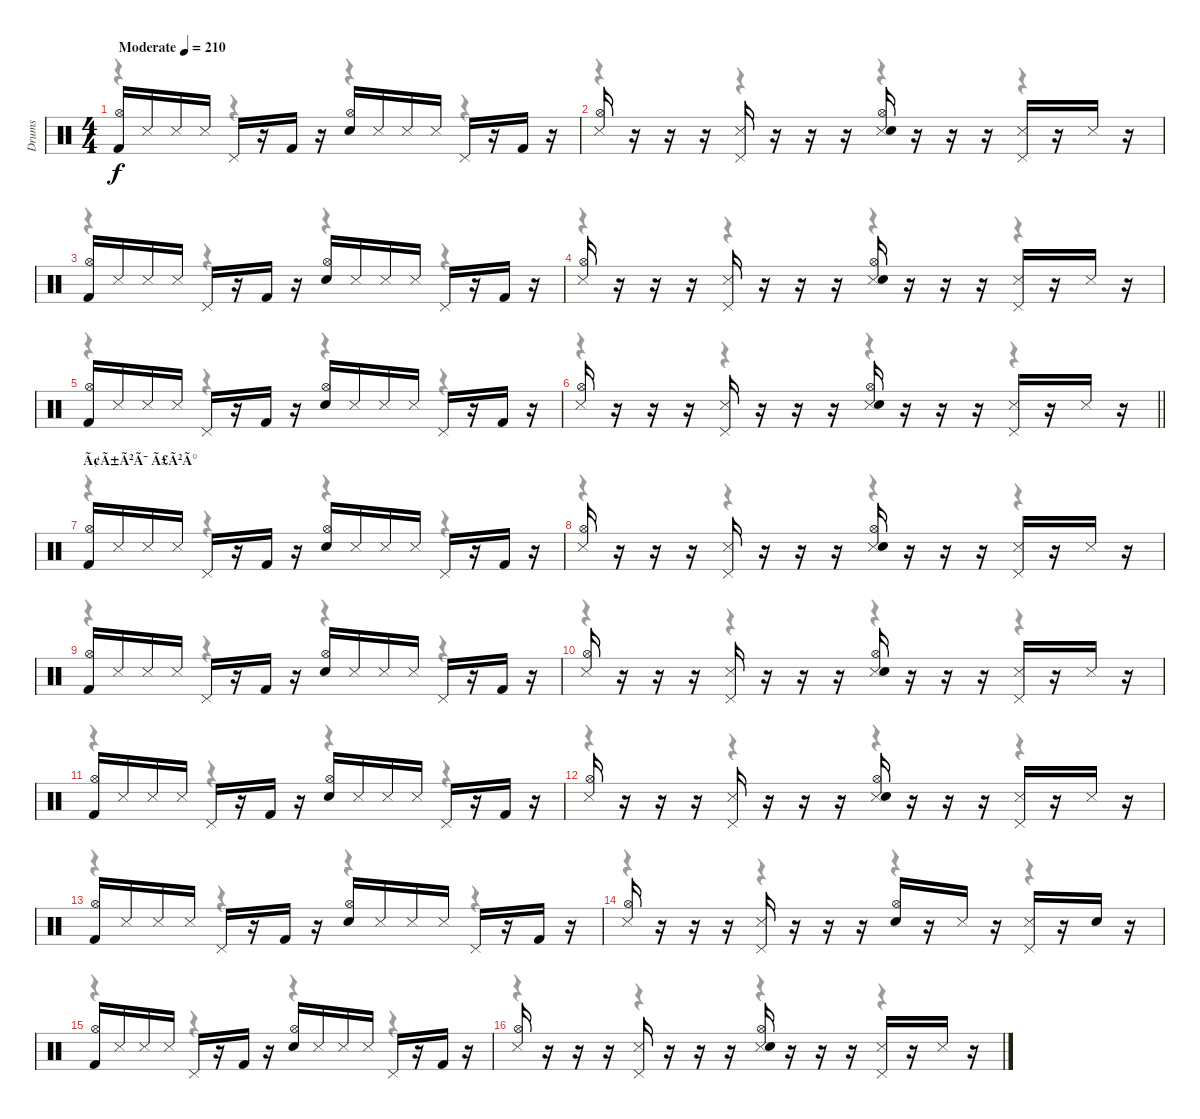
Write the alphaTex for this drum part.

\track ("Drums" "Drums") {instrument percussion}
\staff {score}
\articulation defaults
\voice
\ts (4 4)
\tempo (210 "Moderate")
\clef neutral
\ks c
("Kick (hit) 2" "Hi-Hat (open)").16{dy f} "Snare (side stick) 3".16 "Snare (side stick) 3".16 "Snare (side stick) 3".16 "Pedal Hi-Hat (hit)".16 r.16 "Kick (hit) 2".16 r.16 ("Snare (hit) 2" "Hi-Hat (open)").16 "Snare (side stick) 3".16 "Snare (side stick) 3".16 "Snare (side stick) 3".16 "Pedal Hi-Hat (hit)".16 r.16 "Kick (hit) 2".16 r.16 |
("Snare (side stick) 3" "Hi-Hat (open)").16 r.16 r.16 r.16 ("Snare (side stick) 3" "Pedal Hi-Hat (hit)").16 r.16 r.16 r.16 ("Snare (side stick) 3" "Snare (hit) 2" "Hi-Hat (open)").16 r.16 r.16 r.16 ("Snare (side stick) 3" "Pedal Hi-Hat (hit)").16 r.16 "Snare (side stick) 3".16 r.16 |
("Kick (hit) 2" "Hi-Hat (open)").16 "Snare (side stick) 3".16 "Snare (side stick) 3".16 "Snare (side stick) 3".16 "Pedal Hi-Hat (hit)".16 r.16 "Kick (hit) 2".16 r.16 ("Snare (hit) 2" "Hi-Hat (open)").16 "Snare (side stick) 3".16 "Snare (side stick) 3".16 "Snare (side stick) 3".16 "Pedal Hi-Hat (hit)".16 r.16 "Kick (hit) 2".16 r.16 |
("Snare (side stick) 3" "Hi-Hat (open)").16 r.16 r.16 r.16 ("Snare (side stick) 3" "Pedal Hi-Hat (hit)").16 r.16 r.16 r.16 ("Snare (side stick) 3" "Snare (hit) 2" "Hi-Hat (open)").16 r.16 r.16 r.16 ("Snare (side stick) 3" "Pedal Hi-Hat (hit)").16 r.16 "Snare (side stick) 3".16 r.16 |
("Kick (hit) 2" "Hi-Hat (open)").16 "Snare (side stick) 3".16 "Snare (side stick) 3".16 "Snare (side stick) 3".16 "Pedal Hi-Hat (hit)".16 r.16 "Kick (hit) 2".16 r.16 ("Snare (hit) 2" "Hi-Hat (open)").16 "Snare (side stick) 3".16 "Snare (side stick) 3".16 "Snare (side stick) 3".16 "Pedal Hi-Hat (hit)".16 r.16 "Kick (hit) 2".16 r.16 |
\barLineRight lightlight
("Snare (side stick) 3" "Hi-Hat (open)").16 r.16 r.16 r.16 ("Snare (side stick) 3" "Pedal Hi-Hat (hit)").16 r.16 r.16 r.16 ("Snare (side stick) 3" "Snare (hit) 2" "Hi-Hat (open)").16 r.16 r.16 r.16 ("Snare (side stick) 3" "Pedal Hi-Hat (hit)").16 r.16 "Snare (side stick) 3".16 r.16 |
\section ("" "Ã¢Ã±Ã²Ã¯ Ã£Ã²Ã°")
("Kick (hit) 2" "Hi-Hat (open)").16 "Snare (side stick) 3".16 "Snare (side stick) 3".16 "Snare (side stick) 3".16 "Pedal Hi-Hat (hit)".16 r.16 "Kick (hit) 2".16 r.16 ("Snare (hit) 2" "Hi-Hat (open)").16 "Snare (side stick) 3".16 "Snare (side stick) 3".16 "Snare (side stick) 3".16 "Pedal Hi-Hat (hit)".16 r.16 "Kick (hit) 2".16 r.16 |
("Snare (side stick) 3" "Hi-Hat (open)").16 r.16 r.16 r.16 ("Snare (side stick) 3" "Pedal Hi-Hat (hit)").16 r.16 r.16 r.16 ("Snare (side stick) 3" "Snare (hit) 2" "Hi-Hat (open)").16 r.16 r.16 r.16 ("Snare (side stick) 3" "Pedal Hi-Hat (hit)").16 r.16 "Snare (side stick) 3".16 r.16 |
("Kick (hit) 2" "Hi-Hat (open)").16 "Snare (side stick) 3".16 "Snare (side stick) 3".16 "Snare (side stick) 3".16 "Pedal Hi-Hat (hit)".16 r.16 "Kick (hit) 2".16 r.16 ("Snare (hit) 2" "Hi-Hat (open)").16 "Snare (side stick) 3".16 "Snare (side stick) 3".16 "Snare (side stick) 3".16 "Pedal Hi-Hat (hit)".16 r.16 "Kick (hit) 2".16 r.16 |
("Snare (side stick) 3" "Hi-Hat (open)").16 r.16 r.16 r.16 ("Snare (side stick) 3" "Pedal Hi-Hat (hit)").16 r.16 r.16 r.16 ("Snare (side stick) 3" "Snare (hit) 2" "Hi-Hat (open)").16 r.16 r.16 r.16 ("Snare (side stick) 3" "Pedal Hi-Hat (hit)").16 r.16 "Snare (side stick) 3".16 r.16 |
("Kick (hit) 2" "Hi-Hat (open)").16 "Snare (side stick) 3".16 "Snare (side stick) 3".16 "Snare (side stick) 3".16 "Pedal Hi-Hat (hit)".16 r.16 "Kick (hit) 2".16 r.16 ("Snare (hit) 2" "Hi-Hat (open)").16 "Snare (side stick) 3".16 "Snare (side stick) 3".16 "Snare (side stick) 3".16 "Pedal Hi-Hat (hit)".16 r.16 "Kick (hit) 2".16 r.16 |
("Snare (side stick) 3" "Hi-Hat (open)").16 r.16 r.16 r.16 ("Snare (side stick) 3" "Pedal Hi-Hat (hit)").16 r.16 r.16 r.16 ("Snare (side stick) 3" "Snare (hit) 2" "Hi-Hat (open)").16 r.16 r.16 r.16 ("Snare (side stick) 3" "Pedal Hi-Hat (hit)").16 r.16 "Snare (side stick) 3".16 r.16 |
("Kick (hit) 2" "Hi-Hat (open)").16 "Snare (side stick) 3".16 "Snare (side stick) 3".16 "Snare (side stick) 3".16 "Pedal Hi-Hat (hit)".16 r.16 "Kick (hit) 2".16 r.16 ("Snare (hit) 2" "Hi-Hat (open)").16 "Snare (side stick) 3".16 "Snare (side stick) 3".16 "Snare (side stick) 3".16 "Pedal Hi-Hat (hit)".16 r.16 "Kick (hit) 2".16 r.16 |
("Snare (side stick) 3" "Hi-Hat (open)").16 r.16 r.16 r.16 ("Snare (side stick) 3" "Pedal Hi-Hat (hit)").16 r.16 r.16 r.16 ("Snare (hit) 2" "Hi-Hat (open)").16 r.16 "Snare (side stick) 3".16 r.16 ("Snare (side stick) 3" "Pedal Hi-Hat (hit)").16 r.16 "Snare (hit) 2".16 r.16 |
("Kick (hit) 2" "Hi-Hat (open)").16 "Snare (side stick) 3".16 "Snare (side stick) 3".16 "Snare (side stick) 3".16 "Pedal Hi-Hat (hit)".16 r.16 "Kick (hit) 2".16 r.16 ("Snare (hit) 2" "Hi-Hat (open)").16 "Snare (side stick) 3".16 "Snare (side stick) 3".16 "Snare (side stick) 3".16 "Pedal Hi-Hat (hit)".16 r.16 "Kick (hit) 2".16 r.16 |
("Snare (side stick) 3" "Hi-Hat (open)").16 r.16 r.16 r.16 ("Snare (side stick) 3" "Pedal Hi-Hat (hit)").16 r.16 r.16 r.16 ("Snare (side stick) 3" "Snare (hit) 2" "Hi-Hat (open)").16 r.16 r.16 r.16 ("Snare (side stick) 3" "Pedal Hi-Hat (hit)").16 r.16 "Snare (side stick) 3".16 r.16
\voice
\clef neutral
\ottava regular
\simile none
\ks c
r.4{dy mf} r.4 r.4 r.4 |
r.4 r.4 r.4 r.4 |
r.4 r.4 r.4 r.4 |
r.4 r.4 r.4 r.4 |
r.4 r.4 r.4 r.4 |
\barLineRight lightlight
r.4 r.4 r.4 r.4 |
r.4 r.4 r.4 r.4 |
r.4 r.4 r.4 r.4 |
r.4 r.4 r.4 r.4 |
r.4 r.4 r.4 r.4 |
r.4 r.4 r.4 r.4 |
r.4 r.4 r.4 r.4 |
r.4 r.4 r.4 r.4 |
r.4 r.4 r.4 r.4 |
r.4 r.4 r.4 r.4 |
r.4 r.4 r.4 r.4
